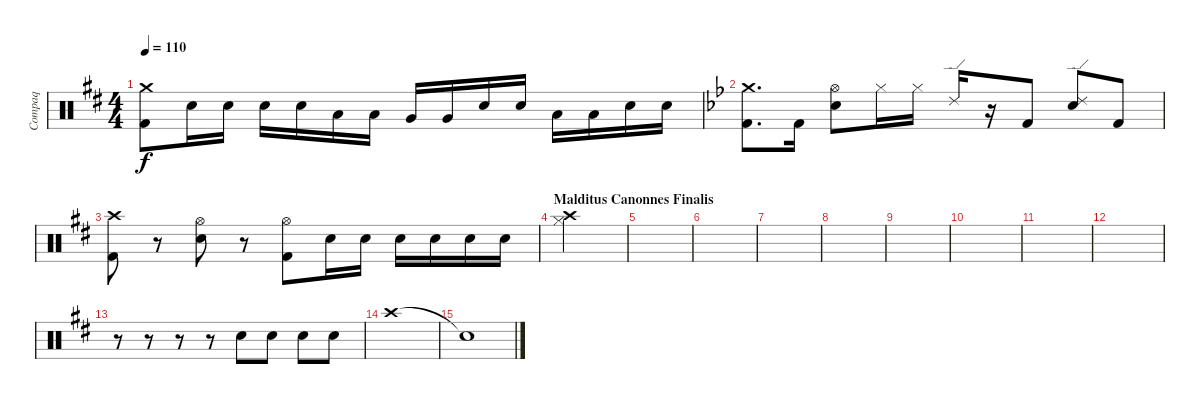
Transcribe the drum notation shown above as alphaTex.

\track ("Compaq" "Compaq") {instrument percussion}
\staff {score}
\articulation defaults
\ts (4 4)
\tempo 110
\clef neutral
\ks bminor
("Crash medium (hit)" "Kick (hit) 2").8{dy f} "Electric Snare (hit)".16 "Electric Snare (hit)".16 "Electric Snare (hit)".16 "Electric Snare (hit)".16 "Low Tom (hit)".16 "Low Tom (hit)".16 "Very Low Tom (hit)".16 "Very Low Tom (hit)".16 "Electric Snare (hit)".16 "Electric Snare (hit)".16 "Low Floor Tom (hit)".16 "Low Floor Tom (hit)".16 "Electric Snare (hit)".16 "Electric Snare (hit)".16 |
\ks bb
("Crash medium (hit)" "Kick (hit) 2").8{d} "Kick (hit) 2".16 ("Hi-Hat (open)" "Electric Snare (hit)").8 "Hi-Hat (closed)".16 "Hi-Hat (closed)".16 "Ride (edge) 2".16 r.16 "Kick (hit) 2".8 ("Ride (edge) 2" "Electric Snare (hit)").8 "Kick (hit) 2".8 |
\ks bminor
("Crash high (hit)" "Kick (hit) 2").8{volume 16} r.8 ("Hi-Hat (open)" "Snare (hit) 2").8 r.8 ("Hi-Hat (open)" "Kick (hit) 2").8 "Snare (hit) 2".16 "Snare (hit) 2".16 "Snare (hit) 2".16 "Snare (hit) 2".16 "Snare (hit) 2".16 "Snare (hit) 2".16 |
\section ("" "Malditus Canonnes Finalis")
("Crash high (hit)" "Hi-Hat (closed)").4 |
|
|
|
|
|
|
|
|
r.8{volume 5} r.8 r.8 r.8 "Electric Snare (hit)".8{volume 16} "Electric Snare (hit)".8 "Electric Snare (hit)".8 "Electric Snare (hit)".8 |
"Crash high (hit)".1 |
"Snare (hit)"{t}.1
